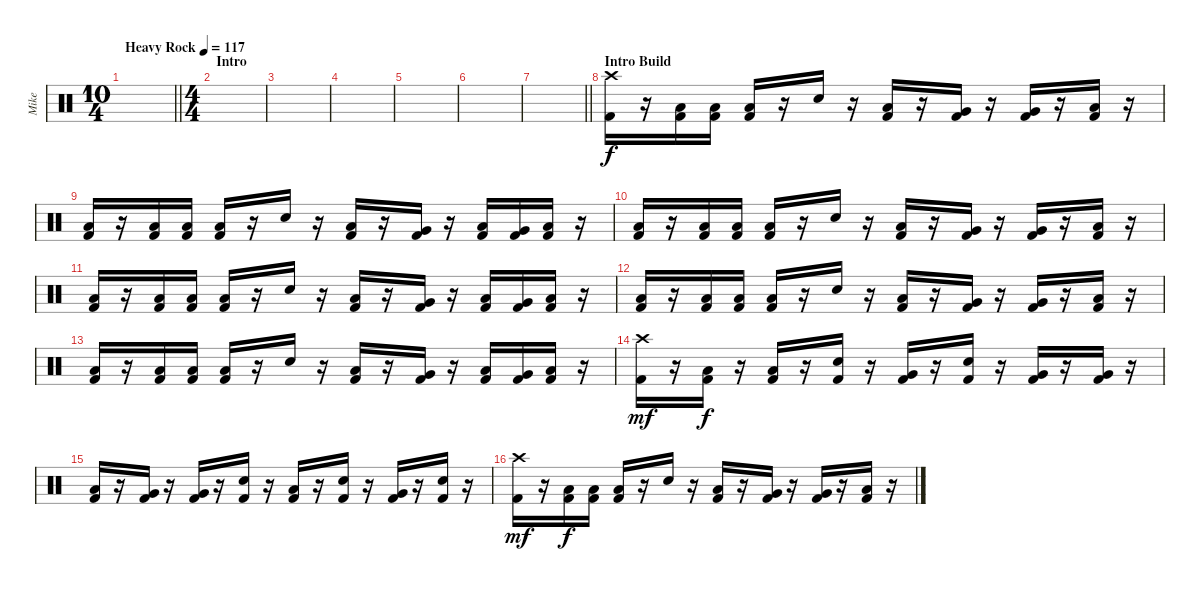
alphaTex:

\track ("Mike" "Mike") {instrument percussion}
\staff {score}
\articulation defaults
\ts (10 4)
\tempo (117 "Heavy Rock")
\clef neutral
\barLineRight lightlight
\ks c
|
\ts (4 4)
\section ("" "Intro")
|
|
|
|
|
\barLineRight lightlight
|
\section ("" "Intro Build")
("Crash high (hit)" "Kick (hit) 2").16 r.16 ("Low Tom (hit)" "Kick (hit) 2").16{dy f} ("Low Tom (hit)" "Kick (hit) 2").16 ("Low Tom (hit)" "Kick (hit) 2").16 r.16 "Snare (hit) 2".16 r.16 ("Low Tom (hit)" "Kick (hit) 2").16 r.16 ("Very Low Tom (hit)" "Kick (hit) 2").16 r.16 ("Very Low Tom (hit)" "Kick (hit) 2").16 r.16 ("Low Tom (hit)" "Kick (hit) 2").16 r.16 |
("Low Tom (hit)" "Kick (hit) 2").16 r.16 ("Low Tom (hit)" "Kick (hit) 2").16 ("Low Tom (hit)" "Kick (hit) 2").16 ("Low Tom (hit)" "Kick (hit) 2").16 r.16 "Snare (hit) 2".16 r.16 ("Low Tom (hit)" "Kick (hit) 2").16 r.16 ("Very Low Tom (hit)" "Kick (hit) 2").16 r.16 ("Low Tom (hit)" "Kick (hit) 2").16 ("Very Low Tom (hit)" "Kick (hit) 2").16 ("Low Floor Tom (hit)" "Kick (hit) 2").16 r.16 |
("Low Tom (hit)" "Kick (hit) 2").16 r.16 ("Low Tom (hit)" "Kick (hit) 2").16 ("Low Tom (hit)" "Kick (hit) 2").16 ("Low Tom (hit)" "Kick (hit) 2").16 r.16 "Snare (hit) 2".16 r.16 ("Low Tom (hit)" "Kick (hit) 2").16 r.16 ("Very Low Tom (hit)" "Kick (hit) 2").16 r.16 ("Very Low Tom (hit)" "Kick (hit) 2").16 r.16 ("Low Tom (hit)" "Kick (hit) 2").16 r.16 |
("Low Tom (hit)" "Kick (hit) 2").16 r.16 ("Low Tom (hit)" "Kick (hit) 2").16 ("Low Tom (hit)" "Kick (hit) 2").16 ("Low Tom (hit)" "Kick (hit) 2").16 r.16 "Snare (hit) 2".16 r.16 ("Low Tom (hit)" "Kick (hit) 2").16 r.16 ("Very Low Tom (hit)" "Kick (hit) 2").16 r.16 ("Low Tom (hit)" "Kick (hit) 2").16 ("Very Low Tom (hit)" "Kick (hit) 2").16 ("Low Floor Tom (hit)" "Kick (hit) 2").16 r.16 |
("Low Tom (hit)" "Kick (hit) 2").16 r.16 ("Low Tom (hit)" "Kick (hit) 2").16 ("Low Tom (hit)" "Kick (hit) 2").16 ("Low Tom (hit)" "Kick (hit) 2").16 r.16 "Snare (hit) 2".16 r.16 ("Low Tom (hit)" "Kick (hit) 2").16 r.16 ("Very Low Tom (hit)" "Kick (hit) 2").16 r.16 ("Very Low Tom (hit)" "Kick (hit) 2").16 r.16 ("Low Tom (hit)" "Kick (hit) 2").16 r.16 |
("Low Tom (hit)" "Kick (hit) 2").16 r.16 ("Low Tom (hit)" "Kick (hit) 2").16 ("Low Tom (hit)" "Kick (hit) 2").16 ("Low Tom (hit)" "Kick (hit) 2").16 r.16 "Snare (hit) 2".16 r.16 ("Low Tom (hit)" "Kick (hit) 2").16 r.16 ("Very Low Tom (hit)" "Kick (hit) 2").16 r.16 ("Low Tom (hit)" "Kick (hit) 2").16 ("Very Low Tom (hit)" "Kick (hit) 2").16 ("Low Floor Tom (hit)" "Kick (hit) 2").16 r.16 |
("Crash high (hit)" "Kick (hit) 2").16{dy mf} r.16 ("Low Tom (hit)" "Kick (hit) 2").16{dy f} r.16 ("Low Tom (hit)" "Kick (hit) 2").16 r.16 ("Snare (hit) 2" "Kick (hit) 2").16 r.16 ("Very Low Tom (hit)" "Kick (hit) 2").16 r.16 ("Snare (hit) 2" "Kick (hit) 2").16 r.16 ("Very Low Tom (hit)" "Kick (hit) 2").16 r.16 ("Very Low Tom (hit)" "Kick (hit) 2").16 r.16 |
("Low Tom (hit)" "Kick (hit) 2").16 r.16 ("Very Low Tom (hit)" "Kick (hit) 2").16 r.16 ("Very Low Tom (hit)" "Kick (hit) 2").16 r.16 ("Snare (hit) 2" "Kick (hit) 2").16 r.16 ("Low Tom (hit)" "Kick (hit) 2").16 r.16 ("Snare (hit) 2" "Kick (hit) 2").16 r.16 ("Very Low Tom (hit)" "Kick (hit) 2").16 r.16 ("Snare (hit) 2" "Kick (hit) 2").16 r.16 |
("Crash high (hit)" "Kick (hit) 2").16{dy mf} r.16 ("Low Tom (hit)" "Kick (hit) 2").16{dy f} ("Low Tom (hit)" "Kick (hit) 2").16 ("Low Tom (hit)" "Kick (hit) 2").16 r.16 "Snare (hit) 2".16 r.16 ("Low Tom (hit)" "Kick (hit) 2").16 r.16 ("Very Low Tom (hit)" "Kick (hit) 2").16 r.16 ("Very Low Tom (hit)" "Kick (hit) 2").16 r.16 ("Low Tom (hit)" "Kick (hit) 2").16 r.16
